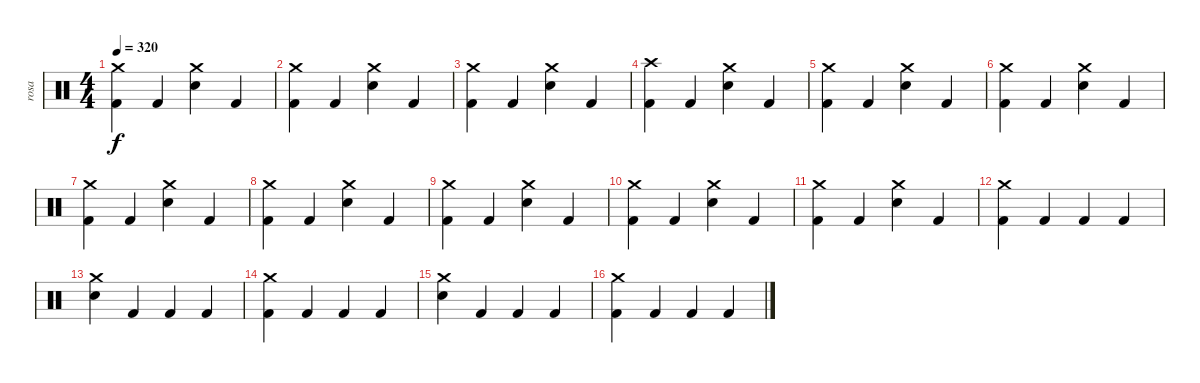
\track ("rosa" "rosa") {instrument percussion}
\staff {score}
\articulation defaults
\ts (4 4)
\tempo 320
\clef neutral
\ks c
("Crash medium (hit)" "Kick (hit) 2").4{dy f} "Kick (hit) 2".4 ("Crash medium (hit)" "Electric Snare (hit)").4 "Kick (hit) 2".4 |
("Crash medium (hit)" "Kick (hit) 2").4 "Kick (hit) 2".4 ("Crash medium (hit)" "Electric Snare (hit)").4 "Kick (hit) 2".4 |
("Crash medium (hit)" "Kick (hit) 2").4 "Kick (hit) 2".4 ("Crash medium (hit)" "Electric Snare (hit)").4 "Kick (hit) 2".4 |
("Crash high (hit)" "Kick (hit) 2").4 "Kick (hit) 2".4 ("Crash medium (hit)" "Electric Snare (hit)").4 "Kick (hit) 2".4 |
("Crash medium (hit)" "Kick (hit) 2").4 "Kick (hit) 2".4 ("Crash medium (hit)" "Electric Snare (hit)").4 "Kick (hit) 2".4 |
("Crash medium (hit)" "Kick (hit) 2").4 "Kick (hit) 2".4 ("Crash medium (hit)" "Electric Snare (hit)").4 "Kick (hit) 2".4 |
("Crash medium (hit)" "Kick (hit) 2").4 "Kick (hit) 2".4 ("Crash medium (hit)" "Electric Snare (hit)").4 "Kick (hit) 2".4 |
("Crash medium (hit)" "Kick (hit) 2").4 "Kick (hit) 2".4 ("Crash medium (hit)" "Electric Snare (hit)").4 "Kick (hit) 2".4 |
("Crash medium (hit)" "Kick (hit) 2").4 "Kick (hit) 2".4 ("Crash medium (hit)" "Electric Snare (hit)").4 "Kick (hit) 2".4 |
("Crash medium (hit)" "Kick (hit) 2").4 "Kick (hit) 2".4 ("Crash medium (hit)" "Electric Snare (hit)").4 "Kick (hit) 2".4 |
("Crash medium (hit)" "Kick (hit) 2").4 "Kick (hit) 2".4 ("Crash medium (hit)" "Electric Snare (hit)").4 "Kick (hit) 2".4 |
("Crash medium (hit)" "Kick (hit) 2").4 "Kick (hit) 2".4 "Kick (hit) 2".4 "Kick (hit) 2".4 |
("Crash medium (hit)" "Electric Snare (hit)").4 "Kick (hit) 2".4 "Kick (hit) 2".4 "Kick (hit) 2".4 |
("Crash medium (hit)" "Kick (hit) 2").4 "Kick (hit) 2".4 "Kick (hit) 2".4 "Kick (hit) 2".4 |
("Crash medium (hit)" "Electric Snare (hit)").4 "Kick (hit) 2".4 "Kick (hit) 2".4 "Kick (hit) 2".4 |
("Crash medium (hit)" "Kick (hit) 2").4 "Kick (hit) 2".4 "Kick (hit) 2".4 "Kick (hit) 2".4
